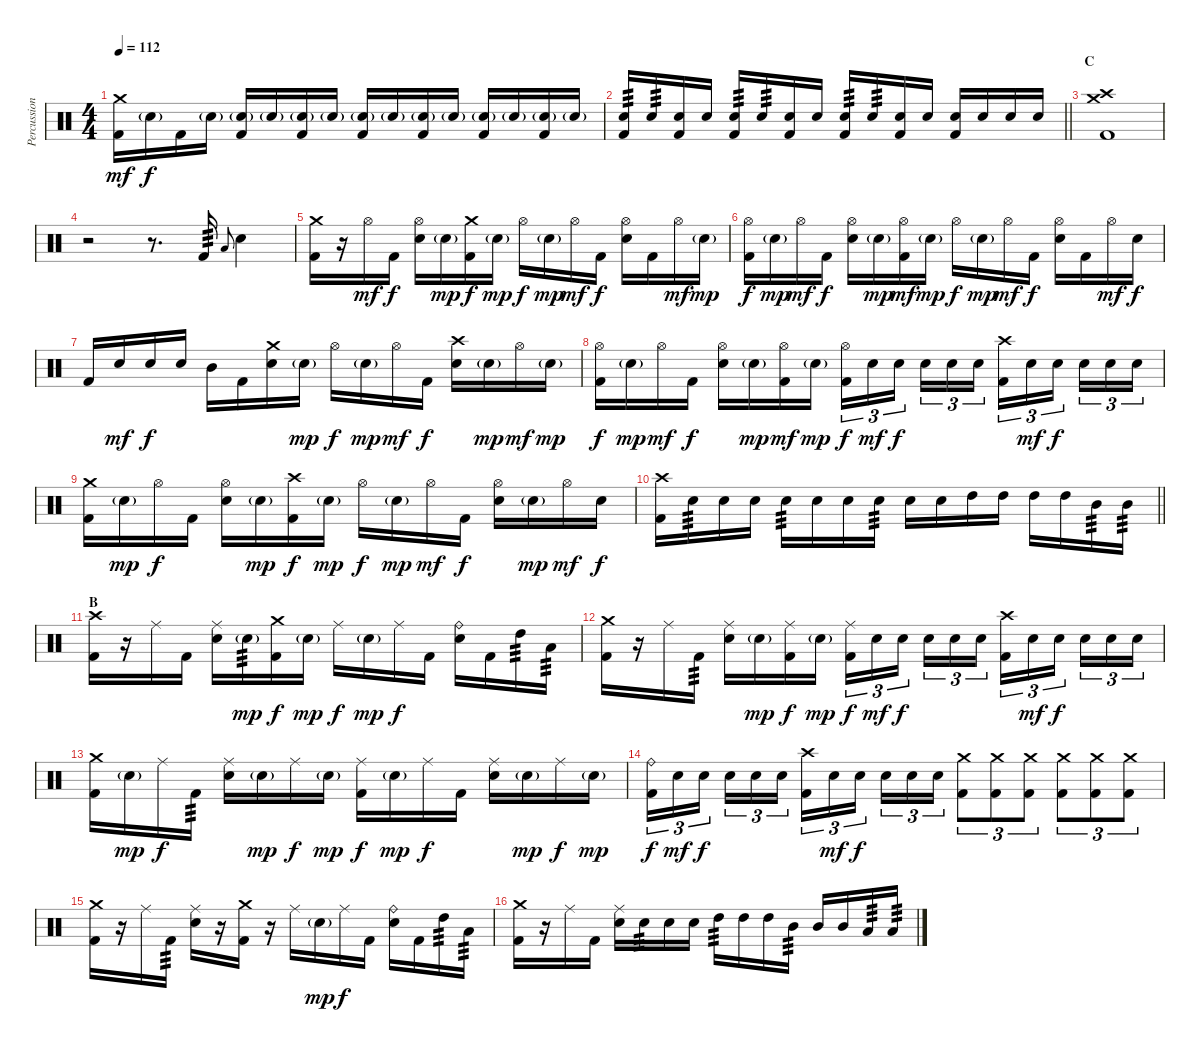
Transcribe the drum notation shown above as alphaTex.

\track ("Percussion" "Percussion") {instrument percussion}
\staff {score}
\articulation defaults
\ts (4 4)
\tempo 112
\clef neutral
\ks c
("Crash medium (hit)" "Kick (hit) 2").16{dy mf} "Snare (hit) 2"{g}.16{dy f} "Kick (hit) 2".16 "Snare (hit) 2"{g}.16 ("Snare (hit) 2"{g} "Kick (hit) 2").16 "Snare (hit) 2"{g}.16 ("Snare (hit) 2"{g} "Kick (hit) 2").16 "Snare (hit) 2"{g}.16 ("Snare (hit) 2"{g} "Kick (hit) 2").16 "Snare (hit) 2"{g}.16 ("Snare (hit) 2"{g} "Kick (hit) 2").16 "Snare (hit) 2"{g}.16 ("Snare (hit) 2"{g} "Kick (hit) 2").16 "Snare (hit) 2"{g}.16 ("Snare (hit) 2"{g} "Kick (hit) 2").16 "Snare (hit) 2"{g}.16 |
\barLineRight lightlight
("Snare (hit) 2" "Kick (hit) 2").16{tp 3} "Snare (hit) 2".16{tp 3} ("Snare (hit) 2" "Kick (hit) 2").16 "Snare (hit) 2".16 ("Snare (hit) 2" "Kick (hit) 2").16{tp 3} "Snare (hit) 2".16{tp 3} ("Snare (hit) 2" "Kick (hit) 2").16 "Snare (hit) 2".16 ("Snare (hit) 2" "Kick (hit) 2").16{tp 3} "Snare (hit) 2".16{tp 3} ("Snare (hit) 2" "Kick (hit) 2").16 "Snare (hit) 2".16 ("Snare (hit) 2" "Kick (hit) 2").16 "Snare (hit) 2".16 "Snare (hit) 2".16 "Snare (hit) 2".16 |
\section ("" "C")
("Crash high (hit)" "Crash medium (hit)" "Kick (hit) 2").1 |
r.2 r.8{d} "Kick (hit) 2".16{tp 3} "Low Tom (hit)".8{gr onbeat} "Snare (hit) 2".4 |
("Crash medium (hit)" "Kick (hit) 2").16 r.16 "Hi-Hat (open)".16{dy mf} "Kick (hit) 2".16{dy f} ("Hi-Hat (open)" "Snare (hit) 2").16 "Snare (hit) 2"{g}.16{dy mp} ("Crash medium (hit)" "Kick (hit) 2").16{dy f} "Snare (hit) 2"{g}.16{dy mp} "Hi-Hat (open)".16{dy f} "Snare (hit) 2"{g}.16{dy mp} "Hi-Hat (open)".16{dy mf} "Kick (hit) 2".16{dy f} ("Hi-Hat (open)" "Snare (hit) 2").16 "Kick (hit) 2".16 "Hi-Hat (open)".16{dy mf} "Snare (hit) 2"{g}.16{dy mp} |
("Hi-Hat (open)" "Kick (hit) 2").16{dy f} "Snare (hit) 2"{g}.16{dy mp} "Hi-Hat (open)".16{dy mf} "Kick (hit) 2".16{dy f} ("Hi-Hat (open)" "Snare (hit) 2").16 "Snare (hit) 2"{g}.16{dy mp} ("Hi-Hat (open)" "Kick (hit) 2").16{dy mf} "Snare (hit) 2"{g}.16{dy mp} "Hi-Hat (open)".16{dy f} "Snare (hit) 2"{g}.16{dy mp} "Hi-Hat (open)".16{dy mf} "Kick (hit) 2".16{dy f} ("Hi-Hat (open)" "Snare (hit) 2").16 "Kick (hit) 2".16 "Hi-Hat (open)".16{dy mf} "Snare (hit) 2".16{dy f} |
"Kick (hit) 2".16 "Snare (hit) 2".16{dy mf} "Snare (hit) 2".16{dy f} "Snare (hit) 2".16 "Mid Tom (hit)".16 "Kick (hit) 2".16 ("Crash medium (hit)" "Snare (hit) 2").16 "Snare (hit) 2"{g}.16{dy mp} "Hi-Hat (open)".16{dy f} "Snare (hit) 2"{g}.16{dy mp} "Hi-Hat (open)".16{dy mf} "Kick (hit) 2".16{dy f} ("Crash high (hit)" "Snare (hit) 2").16 "Snare (hit) 2"{g}.16{dy mp} "Hi-Hat (open)".16{dy mf} "Snare (hit) 2"{g}.16{dy mp} |
("Hi-Hat (open)" "Kick (hit) 2").16{dy f} "Snare (hit) 2"{g}.16{dy mp} "Hi-Hat (open)".16{dy mf} "Kick (hit) 2".16{dy f} ("Hi-Hat (open)" "Snare (hit) 2").16 "Snare (hit) 2"{g}.16{dy mp} ("Hi-Hat (open)" "Kick (hit) 2").16{dy mf} "Snare (hit) 2"{g}.16{dy mp} ("Hi-Hat (open)" "Kick (hit) 2").16{tu (3 2) dy f} "Snare (hit) 2".16{tu (3 2) dy mf} "Snare (hit) 2".16{tu (3 2) dy f beam splitsecondary} "Snare (hit) 2".16{tu (3 2)} "Snare (hit) 2".16{tu (3 2)} "Snare (hit) 2".16{tu (3 2)} ("Crash high (hit)" "Kick (hit) 2").16{tu (3 2)} "Snare (hit) 2".16{tu (3 2) dy mf} "Snare (hit) 2".16{tu (3 2) dy f beam splitsecondary} "Snare (hit) 2".16{tu (3 2)} "Snare (hit) 2".16{tu (3 2)} "Snare (hit) 2".16{tu (3 2)} |
("Crash medium (hit)" "Kick (hit) 2").16 "Snare (hit) 2"{g}.16{dy mp} "Hi-Hat (open)".16{dy f} "Kick (hit) 2".16 ("Hi-Hat (open)" "Snare (hit) 2").16 "Snare (hit) 2"{g}.16{dy mp} ("Crash high (hit)" "Kick (hit) 2").16{dy f} "Snare (hit) 2"{g}.16{dy mp} "Hi-Hat (open)".16{dy f} "Snare (hit) 2"{g}.16{dy mp} "Hi-Hat (open)".16{dy mf} "Kick (hit) 2".16{dy f} ("Hi-Hat (open)" "Snare (hit) 2").16 "Snare (hit) 2"{g}.16{dy mp} "Hi-Hat (open)".16{dy mf} "Snare (hit) 2".16{dy f} |
\barLineRight lightlight
("Crash high (hit)" "Kick (hit) 2").16 "Snare (hit) 2".16{tp 3} "Snare (hit) 2".16 "Snare (hit) 2".16 "Snare (hit) 2".16{tp 3} "Snare (hit) 2".16 "Snare (hit) 2".16 "Snare (hit) 2".16{tp 3} "Snare (hit) 2".16 "Snare (hit) 2".16 "High Tom (hit)".16 "High Tom (hit)".16 "High Tom (hit)".16 "High Tom (hit)".16 "Mid Tom (hit)".16{tp 3} "Mid Tom (hit)".16{tp 3} |
\section ("" "B")
("Crash high (hit)" "Kick (hit) 2").16 r.16 "Ride (middle)".16 "Kick (hit) 2".16 ("Ride (middle)" "Snare (hit) 2").16 "Snare (hit) 2"{g}.16{tp 3 dy mp} ("Crash medium (hit)" "Kick (hit) 2").16{dy f} "Snare (hit) 2"{g}.16{dy mp} "Ride (middle)".16{dy f} "Snare (hit) 2"{g}.16{dy mp} "Ride (middle)".16{dy f} "Kick (hit) 2".16 ("Ride (bell)" "Snare (hit) 2").16 "Kick (hit) 2".16 "High Tom (hit)".16{tp 3} "Low Tom (hit)".16{tp 3} |
("Crash medium (hit)" "Kick (hit) 2").16 r.16 "Ride (middle)".16 "Kick (hit) 2".16{tp 3} ("Ride (middle)" "Snare (hit) 2").16 "Snare (hit) 2"{g}.16{dy mp} ("Ride (middle)" "Kick (hit) 2").16{dy f} "Snare (hit) 2"{g}.16{dy mp} ("Ride (middle)" "Kick (hit) 2").16{tu (3 2) dy f} "Snare (hit) 2".16{tu (3 2) dy mf} "Snare (hit) 2".16{tu (3 2) dy f beam splitsecondary} "Snare (hit) 2".16{tu (3 2)} "Snare (hit) 2".16{tu (3 2)} "Snare (hit) 2".16{tu (3 2)} ("Crash high (hit)" "Kick (hit) 2").16{tu (3 2)} "Snare (hit) 2".16{tu (3 2) dy mf} "Snare (hit) 2".16{tu (3 2) dy f beam splitsecondary} "Snare (hit) 2".16{tu (3 2)} "Snare (hit) 2".16{tu (3 2)} "Snare (hit) 2".16{tu (3 2)} |
("Crash medium (hit)" "Kick (hit) 2").16 "Snare (hit) 2"{g}.16{dy mp} "Ride (middle)".16{dy f} "Kick (hit) 2".16{tp 3} ("Ride (middle)" "Snare (hit) 2").16 "Snare (hit) 2"{g}.16{dy mp} "Ride (middle)".16{dy f} "Snare (hit) 2"{g}.16{dy mp} ("Ride (middle)" "Kick (hit) 2").16{dy f} "Snare (hit) 2"{g}.16{dy mp} "Ride (middle)".16{dy f} "Kick (hit) 2".16 ("Ride (middle)" "Snare (hit) 2").16 "Snare (hit) 2"{g}.16{dy mp} "Ride (middle)".16{dy f} "Snare (hit) 2"{g}.16{dy mp} |
("Ride (bell)" "Kick (hit) 2").16{tu (3 2) dy f} "Snare (hit) 2".16{tu (3 2) dy mf} "Snare (hit) 2".16{tu (3 2) dy f beam splitsecondary} "Snare (hit) 2".16{tu (3 2)} "Snare (hit) 2".16{tu (3 2)} "Snare (hit) 2".16{tu (3 2)} ("Crash high (hit)" "Kick (hit) 2").16{tu (3 2)} "Snare (hit) 2".16{tu (3 2) dy mf} "Snare (hit) 2".16{tu (3 2) dy f beam splitsecondary} "Snare (hit) 2".16{tu (3 2)} "Snare (hit) 2".16{tu (3 2)} "Snare (hit) 2".16{tu (3 2)} ("Crash medium (hit)" "Kick (hit) 2").8{tu (3 2)} ("Crash medium (hit)" "Kick (hit) 2").8{tu (3 2)} ("Crash medium (hit)" "Kick (hit) 2").8{tu (3 2)} ("Crash medium (hit)" "Kick (hit) 2").8{tu (3 2)} ("Crash medium (hit)" "Kick (hit) 2").8{tu (3 2)} ("Crash medium (hit)" "Kick (hit) 2").8{tu (3 2)} |
("Crash medium (hit)" "Kick (hit) 2").16 r.16 "Ride (middle)".16 "Kick (hit) 2".16{tp 3} ("Ride (middle)" "Snare (hit) 2").16 r.16 ("Crash medium (hit)" "Kick (hit) 2").16 r.16 "Ride (middle)".16 "Snare (hit) 2"{g}.16{dy mp} "Ride (middle)".16{dy f} "Kick (hit) 2".16 ("Ride (bell)" "Snare (hit) 2").16 "Kick (hit) 2".16 "High Tom (hit)".16{tp 3} "Low Tom (hit)".16{tp 3} |
("Crash medium (hit)" "Kick (hit) 2").16 r.16 "Ride (middle)".16 "Kick (hit) 2".16 ("Ride (middle)" "Snare (hit) 2").16 "Snare (hit) 2".16{tp 3} "Snare (hit) 2".16 "Snare (hit) 2".16 "High Tom (hit)".16{tp 3} "High Tom (hit)".16 "High Tom (hit)".16 "Mid Tom (hit)".16{tp 3} "Mid Tom (hit)".16 "Mid Tom (hit)".16 "Low Tom (hit)".16{tp 3} "Low Tom (hit)".16{tp 3}
